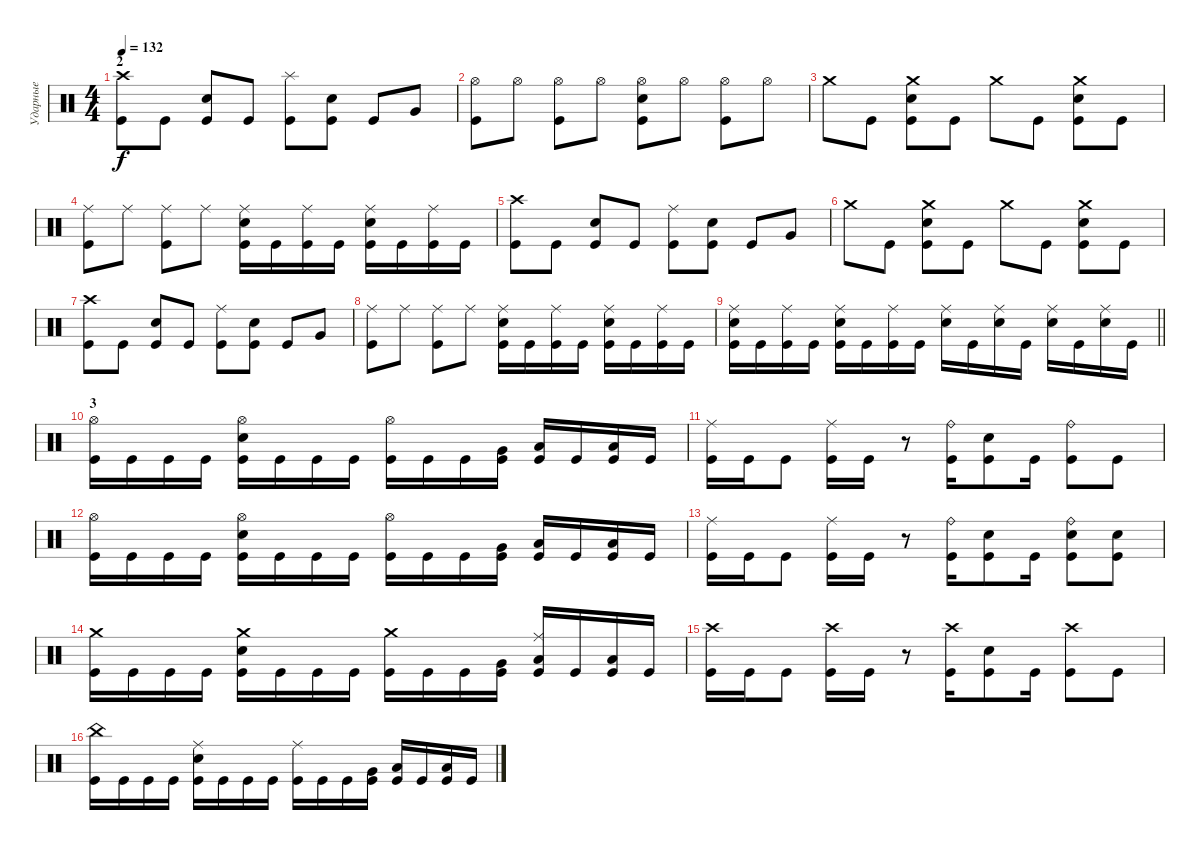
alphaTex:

\track ("Ударные" "Ударные") {instrument percussion}
\staff {score}
\articulation defaults
\ts (4 4)
\section ("" "2")
\tempo 132
\clef neutral
\ks c
("Crash high (hit)" "Kick (hit)").8{dy f} "Kick (hit)".8 ("Electric Snare (hit)" "Kick (hit)").8 "Kick (hit)".8 ("Splash (hit)" "Kick (hit)").8 ("Electric Snare (hit)" "Kick (hit)").8 "Kick (hit)".8 "Very Low Tom (hit)".8 |
("Hi-Hat (open)" "Kick (hit)").8 "Hi-Hat (open)".8 ("Hi-Hat (open)" "Kick (hit)").8 "Hi-Hat (open)".8 ("Hi-Hat (open)" "Electric Snare (hit)" "Kick (hit)").8 "Hi-Hat (open)".8 ("Hi-Hat (open)" "Kick (hit)").8 "Hi-Hat (open)".8 |
"Crash medium (hit)".8 "Kick (hit)".8 ("Crash medium (hit)" "Electric Snare (hit)" "Kick (hit)").8 "Kick (hit)".8 "Crash medium (hit)".8 "Kick (hit)".8 ("Crash medium (hit)" "Electric Snare (hit)" "Kick (hit)").8 "Kick (hit)".8 |
("Ride (middle)" "Kick (hit)").8 "Ride (middle)".8 ("Ride (middle)" "Kick (hit)").8 "Ride (middle)".8 ("Ride (middle)" "Electric Snare (hit)" "Kick (hit)").16 "Kick (hit)".16 ("Ride (middle)" "Kick (hit)").16 "Kick (hit)".16 ("Ride (middle)" "Electric Snare (hit)" "Kick (hit)").16 "Kick (hit)".16 ("Ride (middle)" "Kick (hit)").16 "Kick (hit)".16 |
("Crash high (hit)" "Kick (hit)").8 "Kick (hit)".8 ("Electric Snare (hit)" "Kick (hit)").8 "Kick (hit)".8 ("Ride (middle)" "Kick (hit)").8 ("Electric Snare (hit)" "Kick (hit)").8 "Kick (hit)".8 "Very Low Tom (hit)".8 |
"Crash medium (hit)".8 "Kick (hit)".8 ("Crash medium (hit)" "Electric Snare (hit)" "Kick (hit)").8 "Kick (hit)".8 "Crash medium (hit)".8 "Kick (hit)".8 ("Crash medium (hit)" "Electric Snare (hit)" "Kick (hit)").8 "Kick (hit)".8 |
("Crash high (hit)" "Kick (hit)").8 "Kick (hit)".8 ("Electric Snare (hit)" "Kick (hit)").8 "Kick (hit)".8 ("Ride (middle)" "Kick (hit)").8 ("Electric Snare (hit)" "Kick (hit)").8 "Kick (hit)".8 "Very Low Tom (hit)".8 |
("Ride (middle)" "Kick (hit)").8 "Ride (middle)".8 ("Ride (middle)" "Kick (hit)").8 "Ride (middle)".8 ("Ride (middle)" "Electric Snare (hit)" "Kick (hit)").16 "Kick (hit)".16 ("Ride (middle)" "Kick (hit)").16 "Kick (hit)".16 ("Ride (middle)" "Electric Snare (hit)" "Kick (hit)").16 "Kick (hit)".16 ("Ride (middle)" "Kick (hit)").16 "Kick (hit)".16 |
\barLineRight lightlight
("Ride (middle)" "Electric Snare (hit)" "Kick (hit)").16 "Kick (hit)".16 ("Ride (middle)" "Kick (hit)").16 "Kick (hit)".16 ("Ride (middle)" "Electric Snare (hit)" "Kick (hit)").16 "Kick (hit)".16 ("Ride (middle)" "Kick (hit)").16 "Kick (hit)".16 ("Ride (middle)" "Electric Snare (hit)").16 "Kick (hit)".16 ("Ride (middle)" "Electric Snare (hit)").16 "Kick (hit)".16 ("Ride (middle)" "Electric Snare (hit)").16 "Kick (hit)".16 ("Ride (middle)" "Electric Snare (hit)").16 "Kick (hit)".16 |
\section ("" "3")
("Hi-Hat (open)" "Kick (hit)").16 "Kick (hit)".16 "Kick (hit)".16 "Kick (hit)".16 ("Hi-Hat (open)" "Electric Snare (hit)" "Kick (hit)").16 "Kick (hit)".16 "Kick (hit)".16 "Kick (hit)".16 ("Hi-Hat (open)" "Kick (hit)").16 "Kick (hit)".16 "Kick (hit)".16 ("Very Low Tom (hit)" "Kick (hit)").16 ("Low Tom (hit)" "Kick (hit)").16 "Kick (hit)".16 ("Low Tom (hit)" "Kick (hit)").16 "Kick (hit)".16 |
("Ride (middle)" "Kick (hit)").16 "Kick (hit)".16 "Kick (hit)".8 ("Ride (middle)" "Kick (hit)").16 "Kick (hit)".16 r.8 ("Ride (bell)" "Kick (hit)").16 ("Electric Snare (hit)" "Kick (hit)").8 "Kick (hit)".16 ("Ride (bell)" "Kick (hit)").8 "Kick (hit)".8 |
("Hi-Hat (open)" "Kick (hit)").16 "Kick (hit)".16 "Kick (hit)".16 "Kick (hit)".16 ("Hi-Hat (open)" "Electric Snare (hit)" "Kick (hit)").16 "Kick (hit)".16 "Kick (hit)".16 "Kick (hit)".16 ("Hi-Hat (open)" "Kick (hit)").16 "Kick (hit)".16 "Kick (hit)".16 ("Very Low Tom (hit)" "Kick (hit)").16 ("Low Tom (hit)" "Kick (hit)").16 "Kick (hit)".16 ("Low Tom (hit)" "Kick (hit)").16 "Kick (hit)".16 |
("Ride (middle)" "Kick (hit)").16 "Kick (hit)".16 "Kick (hit)".8 ("Ride (middle)" "Kick (hit)").16 "Kick (hit)".16 r.8 ("Ride (bell)" "Kick (hit)").16 ("Electric Snare (hit)" "Kick (hit)").8 "Kick (hit)".16 ("Ride (bell)" "Electric Snare (hit)" "Kick (hit)").8 ("Electric Snare (hit)" "Kick (hit)").8 |
("Crash medium (hit)" "Kick (hit)").16 "Kick (hit)".16 "Kick (hit)".16 "Kick (hit)".16 ("Crash medium (hit)" "Electric Snare (hit)" "Kick (hit)").16 "Kick (hit)".16 "Kick (hit)".16 "Kick (hit)".16 ("Crash medium (hit)" "Kick (hit)").16 "Kick (hit)".16 "Kick (hit)".16 ("Very Low Tom (hit)" "Kick (hit)").16 ("Ride (middle)" "Low Tom (hit)" "Kick (hit)").16 "Kick (hit)".16 ("Low Tom (hit)" "Kick (hit)").16 "Kick (hit)".16 |
("Crash high (hit)" "Kick (hit)").16 "Kick (hit)".16 "Kick (hit)".8 ("Crash high (hit)" "Kick (hit)").16 "Kick (hit)".16 r.8 ("Crash high (hit)" "Kick (hit)").16 ("Electric Snare (hit)" "Kick (hit)").8 "Kick (hit)".16 ("Crash high (hit)" "Kick (hit)").8 "Kick (hit)".8 |
("China (hit)" "Kick (hit)").16 "Kick (hit)".16 "Kick (hit)".16 "Kick (hit)".16 ("Ride (middle)" "Electric Snare (hit)" "Kick (hit)").16 "Kick (hit)".16 "Kick (hit)".16 "Kick (hit)".16 ("Ride (middle)" "Kick (hit)").16 "Kick (hit)".16 "Kick (hit)".16 ("Very Low Tom (hit)" "Kick (hit)").16 ("Low Tom (hit)" "Kick (hit)").16 "Kick (hit)".16 ("Low Tom (hit)" "Kick (hit)").16 "Kick (hit)".16
